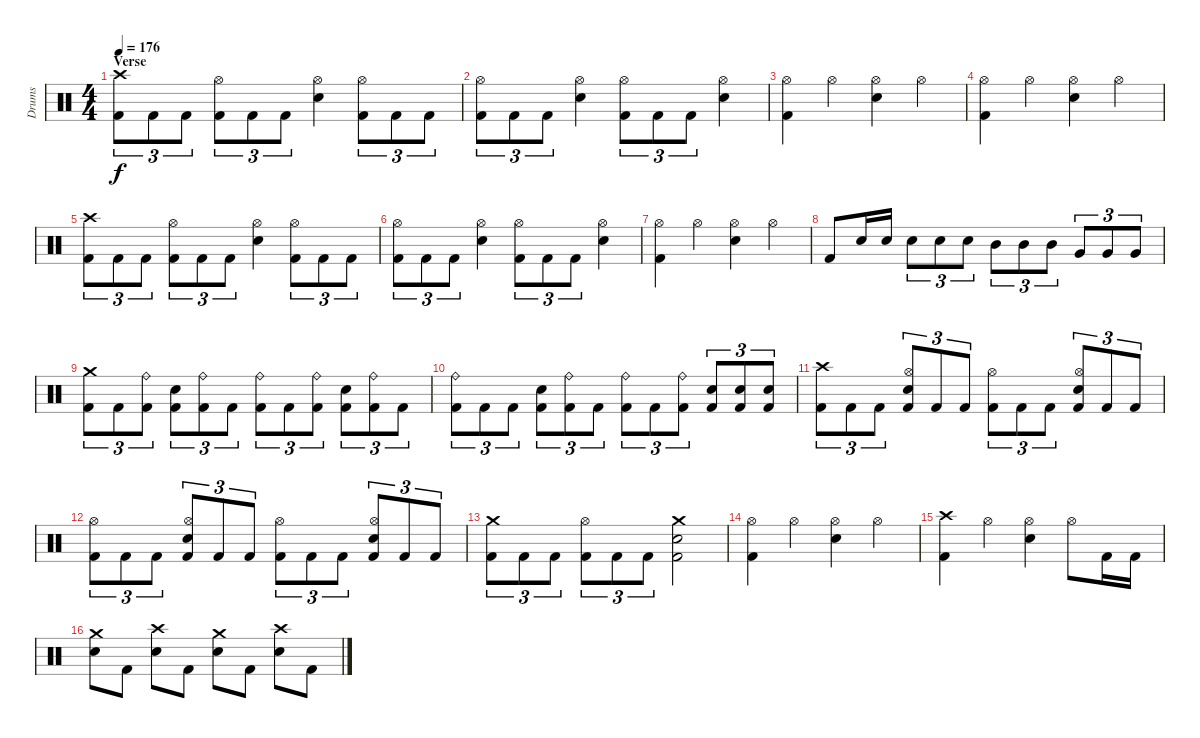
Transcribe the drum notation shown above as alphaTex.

\track ("Drums" "Drums") {instrument percussion}
\staff {score}
\articulation defaults
\ts (4 4)
\section ("" "Verse")
\tempo 176
\clef neutral
\ks c
("Kick (hit) 2" "Crash high (hit)").8{tu (3 2) dy f} "Kick (hit) 2".8{tu (3 2)} "Kick (hit) 2".8{tu (3 2)} ("Kick (hit) 2" "Hi-Hat (open)").8{tu (3 2)} "Kick (hit) 2".8{tu (3 2)} "Kick (hit) 2".8{tu (3 2)} ("Electric Snare (hit)" "Hi-Hat (open)").4 ("Kick (hit) 2" "Hi-Hat (open)").8{tu (3 2)} "Kick (hit) 2".8{tu (3 2)} "Kick (hit) 2".8{tu (3 2)} |
("Kick (hit) 2" "Hi-Hat (open)").8{tu (3 2)} "Kick (hit) 2".8{tu (3 2)} "Kick (hit) 2".8{tu (3 2)} ("Electric Snare (hit)" "Hi-Hat (open)").4 ("Kick (hit) 2" "Hi-Hat (open)").8{tu (3 2)} "Kick (hit) 2".8{tu (3 2)} "Kick (hit) 2".8{tu (3 2)} ("Electric Snare (hit)" "Hi-Hat (open)").4 |
("Kick (hit) 2" "Hi-Hat (open)").4 "Hi-Hat (open)".4 ("Electric Snare (hit)" "Hi-Hat (open)").4 "Hi-Hat (open)".4 |
("Kick (hit) 2" "Hi-Hat (open)").4 "Hi-Hat (open)".4 ("Electric Snare (hit)" "Hi-Hat (open)").4 "Hi-Hat (open)".4 |
("Kick (hit) 2" "Crash high (hit)").8{tu (3 2)} "Kick (hit) 2".8{tu (3 2)} "Kick (hit) 2".8{tu (3 2)} ("Kick (hit) 2" "Hi-Hat (open)").8{tu (3 2)} "Kick (hit) 2".8{tu (3 2)} "Kick (hit) 2".8{tu (3 2)} ("Electric Snare (hit)" "Hi-Hat (open)").4 ("Kick (hit) 2" "Hi-Hat (open)").8{tu (3 2)} "Kick (hit) 2".8{tu (3 2)} "Kick (hit) 2".8{tu (3 2)} |
("Kick (hit) 2" "Hi-Hat (open)").8{tu (3 2)} "Kick (hit) 2".8{tu (3 2)} "Kick (hit) 2".8{tu (3 2)} ("Electric Snare (hit)" "Hi-Hat (open)").4 ("Kick (hit) 2" "Hi-Hat (open)").8{tu (3 2)} "Kick (hit) 2".8{tu (3 2)} "Kick (hit) 2".8{tu (3 2)} ("Electric Snare (hit)" "Hi-Hat (open)").4 |
("Kick (hit) 2" "Hi-Hat (open)").4 "Hi-Hat (open)".4 ("Electric Snare (hit)" "Hi-Hat (open)").4 "Hi-Hat (open)".4 |
"Kick (hit) 2".8 "Electric Snare (hit)".16 "Electric Snare (hit)".16 "Electric Snare (hit)".8{tu (3 2)} "Electric Snare (hit)".8{tu (3 2)} "Electric Snare (hit)".8{tu (3 2)} "Mid Tom (hit)".8{tu (3 2)} "Mid Tom (hit)".8{tu (3 2)} "Mid Tom (hit)".8{tu (3 2)} "Very Low Tom (hit)".8{tu (3 2)} "Very Low Tom (hit)".8{tu (3 2)} "Very Low Tom (hit)".8{tu (3 2)} |
("Kick (hit) 2" "Crash medium (hit)").8{tu (3 2)} "Kick (hit) 2".8{tu (3 2)} ("Kick (hit) 2" "Ride (bell)").8{tu (3 2)} ("Kick (hit) 2" "Electric Snare (hit)").8{tu (3 2)} ("Kick (hit) 2" "Ride (bell)").8{tu (3 2)} "Kick (hit) 2".8{tu (3 2)} ("Kick (hit) 2" "Ride (bell)").8{tu (3 2)} "Kick (hit) 2".8{tu (3 2)} ("Kick (hit) 2" "Ride (bell)").8{tu (3 2)} ("Kick (hit) 2" "Electric Snare (hit)").8{tu (3 2)} ("Kick (hit) 2" "Ride (bell)").8{tu (3 2)} "Kick (hit) 2".8{tu (3 2)} |
("Kick (hit) 2" "Ride (bell)").8{tu (3 2)} "Kick (hit) 2".8{tu (3 2)} "Kick (hit) 2".8{tu (3 2)} ("Kick (hit) 2" "Electric Snare (hit)").8{tu (3 2)} ("Kick (hit) 2" "Ride (bell)").8{tu (3 2)} "Kick (hit) 2".8{tu (3 2)} ("Kick (hit) 2" "Ride (bell)").8{tu (3 2)} "Kick (hit) 2".8{tu (3 2)} ("Kick (hit) 2" "Ride (bell)").8{tu (3 2)} ("Kick (hit) 2" "Electric Snare (hit)").8{tu (3 2)} ("Kick (hit) 2" "Electric Snare (hit)").8{tu (3 2)} ("Kick (hit) 2" "Electric Snare (hit)").8{tu (3 2)} |
("Kick (hit) 2" "Crash high (hit)").8{tu (3 2)} "Kick (hit) 2".8{tu (3 2)} "Kick (hit) 2".8{tu (3 2)} ("Kick (hit) 2" "Electric Snare (hit)" "Hi-Hat (open)").8{tu (3 2)} "Kick (hit) 2".8{tu (3 2)} "Kick (hit) 2".8{tu (3 2)} ("Kick (hit) 2" "Hi-Hat (open)").8{tu (3 2)} "Kick (hit) 2".8{tu (3 2)} "Kick (hit) 2".8{tu (3 2)} ("Kick (hit) 2" "Electric Snare (hit)" "Hi-Hat (open)").8{tu (3 2)} "Kick (hit) 2".8{tu (3 2)} "Kick (hit) 2".8{tu (3 2)} |
("Kick (hit) 2" "Hi-Hat (open)").8{tu (3 2)} "Kick (hit) 2".8{tu (3 2)} "Kick (hit) 2".8{tu (3 2)} ("Kick (hit) 2" "Electric Snare (hit)" "Hi-Hat (open)").8{tu (3 2)} "Kick (hit) 2".8{tu (3 2)} "Kick (hit) 2".8{tu (3 2)} ("Kick (hit) 2" "Hi-Hat (open)").8{tu (3 2)} "Kick (hit) 2".8{tu (3 2)} "Kick (hit) 2".8{tu (3 2)} ("Kick (hit) 2" "Electric Snare (hit)" "Hi-Hat (open)").8{tu (3 2)} "Kick (hit) 2".8{tu (3 2)} "Kick (hit) 2".8{tu (3 2)} |
("Kick (hit) 2" "Crash medium (hit)").8{tu (3 2)} "Kick (hit) 2".8{tu (3 2)} "Kick (hit) 2".8{tu (3 2)} ("Kick (hit) 2" "Hi-Hat (open)").8{tu (3 2)} "Kick (hit) 2".8{tu (3 2)} "Kick (hit) 2".8{tu (3 2)} ("Kick (hit) 2" "Electric Snare (hit)" "Crash medium (hit)").2 |
("Kick (hit) 2" "Hi-Hat (open)").4 "Hi-Hat (open)".4 ("Electric Snare (hit)" "Hi-Hat (open)").4 "Hi-Hat (open)".4 |
("Kick (hit) 2" "Crash high (hit)").4 "Hi-Hat (open)".4 ("Electric Snare (hit)" "Hi-Hat (open)").4 "Hi-Hat (open)".8 "Kick (hit) 2".16 "Kick (hit) 2".16 |
("Electric Snare (hit)" "Crash medium (hit)").8 "Kick (hit) 2".8 ("Electric Snare (hit)" "Crash high (hit)").8 "Kick (hit) 2".8 ("Electric Snare (hit)" "Crash medium (hit)").8 "Kick (hit) 2".8 ("Electric Snare (hit)" "Crash high (hit)").8 "Kick (hit) 2".8
